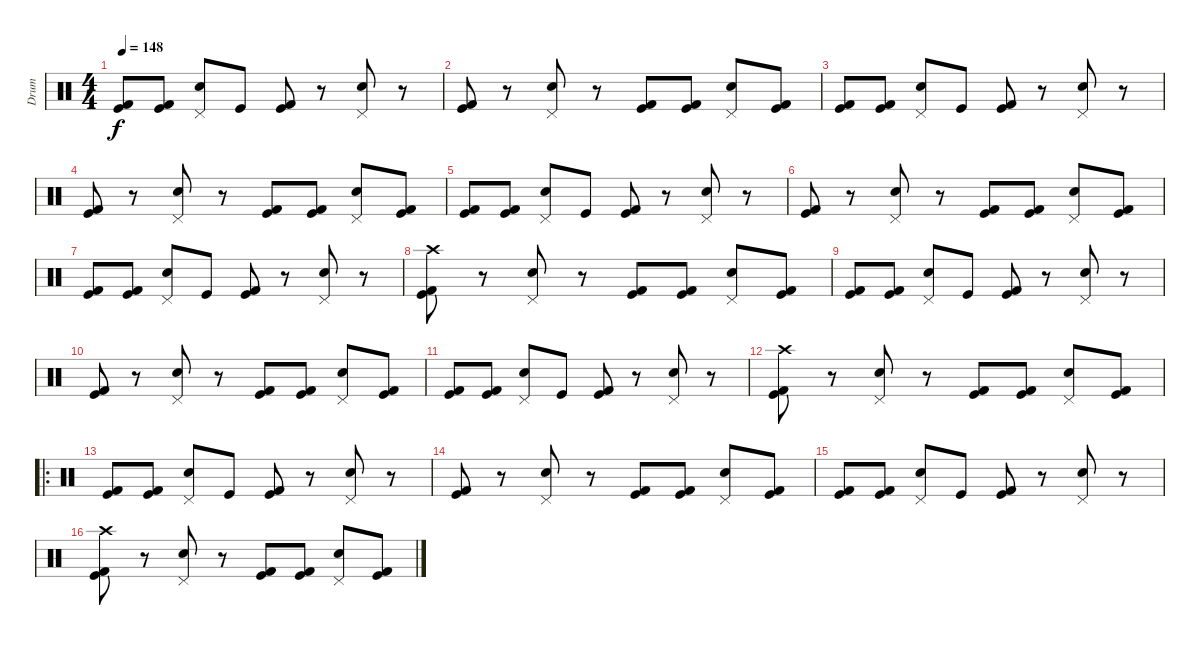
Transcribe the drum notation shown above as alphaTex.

\track ("Drum" "Drum") {instrument percussion}
\staff {score}
\articulation defaults
\ts (4 4)
\tempo 148
\clef neutral
\ks c
("Kick (hit)" "Kick (hit) 2").8{dy f} ("Kick (hit)" "Kick (hit) 2").8 ("Pedal Hi-Hat (hit)" "Snare (hit) 2").8 "Kick (hit)".8 ("Kick (hit)" "Kick (hit) 2").8 r.8 ("Pedal Hi-Hat (hit)" "Snare (hit) 2").8 r.8 |
("Kick (hit)" "Kick (hit) 2").8 r.8 ("Pedal Hi-Hat (hit)" "Snare (hit) 2").8 r.8 ("Kick (hit)" "Kick (hit) 2").8 ("Kick (hit)" "Kick (hit) 2").8 ("Pedal Hi-Hat (hit)" "Snare (hit) 2").8 ("Kick (hit)" "Kick (hit) 2").8 |
("Kick (hit)" "Kick (hit) 2").8 ("Kick (hit)" "Kick (hit) 2").8 ("Pedal Hi-Hat (hit)" "Snare (hit) 2").8 "Kick (hit)".8 ("Kick (hit)" "Kick (hit) 2").8 r.8 ("Pedal Hi-Hat (hit)" "Snare (hit) 2").8 r.8 |
("Kick (hit)" "Kick (hit) 2").8 r.8 ("Pedal Hi-Hat (hit)" "Snare (hit) 2").8 r.8 ("Kick (hit)" "Kick (hit) 2").8 ("Kick (hit)" "Kick (hit) 2").8 ("Pedal Hi-Hat (hit)" "Snare (hit) 2").8 ("Kick (hit)" "Kick (hit) 2").8 |
("Kick (hit)" "Kick (hit) 2").8 ("Kick (hit)" "Kick (hit) 2").8 ("Pedal Hi-Hat (hit)" "Snare (hit) 2").8 "Kick (hit)".8 ("Kick (hit)" "Kick (hit) 2").8 r.8 ("Pedal Hi-Hat (hit)" "Snare (hit) 2").8 r.8 |
("Kick (hit)" "Kick (hit) 2").8 r.8 ("Pedal Hi-Hat (hit)" "Snare (hit) 2").8 r.8 ("Kick (hit)" "Kick (hit) 2").8 ("Kick (hit)" "Kick (hit) 2").8 ("Pedal Hi-Hat (hit)" "Snare (hit) 2").8 ("Kick (hit)" "Kick (hit) 2").8 |
("Kick (hit)" "Kick (hit) 2").8 ("Kick (hit)" "Kick (hit) 2").8 ("Pedal Hi-Hat (hit)" "Snare (hit) 2").8 "Kick (hit)".8 ("Kick (hit)" "Kick (hit) 2").8 r.8 ("Pedal Hi-Hat (hit)" "Snare (hit) 2").8 r.8 |
("Crash high (hit)" "Kick (hit)" "Kick (hit) 2").8 r.8 ("Pedal Hi-Hat (hit)" "Snare (hit) 2").8 r.8 ("Kick (hit)" "Kick (hit) 2").8 ("Kick (hit)" "Kick (hit) 2").8 ("Pedal Hi-Hat (hit)" "Snare (hit) 2").8 ("Kick (hit)" "Kick (hit) 2").8 |
("Kick (hit)" "Kick (hit) 2").8 ("Kick (hit)" "Kick (hit) 2").8 ("Pedal Hi-Hat (hit)" "Snare (hit) 2").8 "Kick (hit)".8 ("Kick (hit)" "Kick (hit) 2").8 r.8 ("Pedal Hi-Hat (hit)" "Snare (hit) 2").8 r.8 |
("Kick (hit)" "Kick (hit) 2").8 r.8 ("Pedal Hi-Hat (hit)" "Snare (hit) 2").8 r.8 ("Kick (hit)" "Kick (hit) 2").8 ("Kick (hit)" "Kick (hit) 2").8 ("Pedal Hi-Hat (hit)" "Snare (hit) 2").8 ("Kick (hit)" "Kick (hit) 2").8 |
("Kick (hit)" "Kick (hit) 2").8 ("Kick (hit)" "Kick (hit) 2").8 ("Pedal Hi-Hat (hit)" "Snare (hit) 2").8 "Kick (hit)".8 ("Kick (hit)" "Kick (hit) 2").8 r.8 ("Pedal Hi-Hat (hit)" "Snare (hit) 2").8 r.8 |
("Crash high (hit)" "Kick (hit)" "Kick (hit) 2").8 r.8 ("Pedal Hi-Hat (hit)" "Snare (hit) 2").8 r.8 ("Kick (hit)" "Kick (hit) 2").8 ("Kick (hit)" "Kick (hit) 2").8 ("Pedal Hi-Hat (hit)" "Snare (hit) 2").8 ("Kick (hit)" "Kick (hit) 2").8 |
\ro
("Kick (hit)" "Kick (hit) 2").8 ("Kick (hit)" "Kick (hit) 2").8 ("Pedal Hi-Hat (hit)" "Snare (hit) 2").8 "Kick (hit)".8 ("Kick (hit)" "Kick (hit) 2").8 r.8 ("Pedal Hi-Hat (hit)" "Snare (hit) 2").8 r.8 |
("Kick (hit)" "Kick (hit) 2").8 r.8 ("Pedal Hi-Hat (hit)" "Snare (hit) 2").8 r.8 ("Kick (hit)" "Kick (hit) 2").8 ("Kick (hit)" "Kick (hit) 2").8 ("Pedal Hi-Hat (hit)" "Snare (hit) 2").8 ("Kick (hit)" "Kick (hit) 2").8 |
("Kick (hit)" "Kick (hit) 2").8 ("Kick (hit)" "Kick (hit) 2").8 ("Pedal Hi-Hat (hit)" "Snare (hit) 2").8 "Kick (hit)".8 ("Kick (hit)" "Kick (hit) 2").8 r.8 ("Pedal Hi-Hat (hit)" "Snare (hit) 2").8 r.8 |
("Crash high (hit)" "Kick (hit)" "Kick (hit) 2").8 r.8 ("Pedal Hi-Hat (hit)" "Snare (hit) 2").8 r.8 ("Kick (hit)" "Kick (hit) 2").8 ("Kick (hit)" "Kick (hit) 2").8 ("Pedal Hi-Hat (hit)" "Snare (hit) 2").8 ("Kick (hit)" "Kick (hit) 2").8
